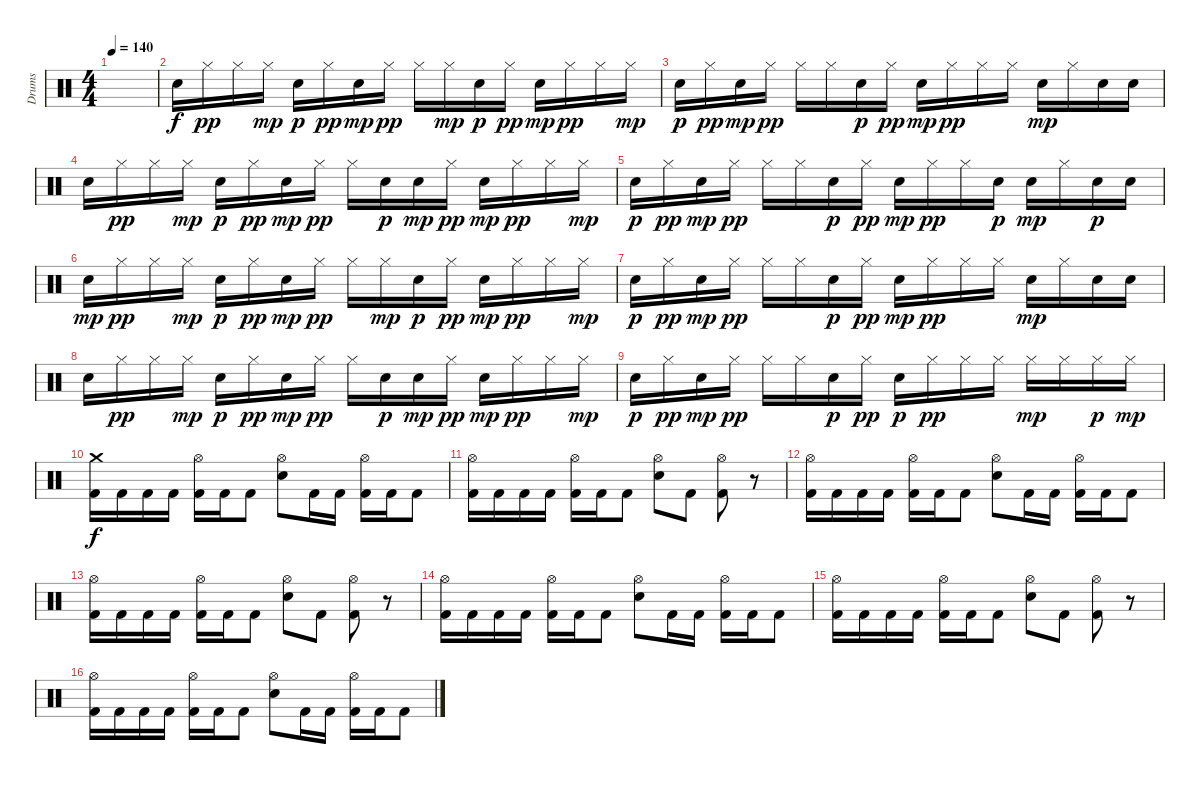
\track ("Drums" "Drums") {instrument percussion}
\staff {score}
\articulation defaults
\ts (4 4)
\tempo 140
\clef neutral
\ks aminor
|
"Snare (hit) 2".16 "Hi-Hat (closed)".16{dy pp} "Hi-Hat (closed)".16 "Hi-Hat (closed)".16{dy mp} "Snare (hit) 2".16{dy p} "Hi-Hat (closed)".16{dy pp} "Snare (hit) 2".16{dy mp} "Hi-Hat (closed)".16{dy pp} "Hi-Hat (closed)".16 "Hi-Hat (closed)".16{dy mp} "Snare (hit) 2".16{dy p} "Hi-Hat (closed)".16{dy pp} "Snare (hit) 2".16{dy mp} "Hi-Hat (closed)".16{dy pp} "Hi-Hat (closed)".16 "Hi-Hat (closed)".16{dy mp} |
"Snare (hit) 2".16{dy p} "Hi-Hat (closed)".16{dy pp} "Snare (hit) 2".16{dy mp} "Hi-Hat (closed)".16{dy pp} "Hi-Hat (closed)".16 "Hi-Hat (closed)".16 "Snare (hit) 2".16{dy p} "Hi-Hat (closed)".16{dy pp} "Snare (hit) 2".16{dy mp} "Hi-Hat (closed)".16{dy pp} "Hi-Hat (closed)".16 "Hi-Hat (closed)".16 "Snare (hit) 2".16{dy mp} "Hi-Hat (closed)".16 "Snare (hit) 2".16 "Snare (hit) 2".16 |
"Snare (hit) 2".16 "Hi-Hat (closed)".16{dy pp} "Hi-Hat (closed)".16 "Hi-Hat (closed)".16{dy mp} "Snare (hit) 2".16{dy p} "Hi-Hat (closed)".16{dy pp} "Snare (hit) 2".16{dy mp} "Hi-Hat (closed)".16{dy pp} "Hi-Hat (closed)".16 "Snare (hit) 2".16{dy p} "Snare (hit) 2".16{dy mp} "Hi-Hat (closed)".16{dy pp} "Snare (hit) 2".16{dy mp} "Hi-Hat (closed)".16{dy pp} "Hi-Hat (closed)".16 "Hi-Hat (closed)".16{dy mp} |
"Snare (hit) 2".16{dy p} "Hi-Hat (closed)".16{dy pp} "Snare (hit) 2".16{dy mp} "Hi-Hat (closed)".16{dy pp} "Hi-Hat (closed)".16 "Hi-Hat (closed)".16 "Snare (hit) 2".16{dy p} "Hi-Hat (closed)".16{dy pp} "Snare (hit) 2".16{dy mp} "Hi-Hat (closed)".16{dy pp} "Hi-Hat (closed)".16 "Snare (hit) 2".16{dy p} "Snare (hit) 2".16{dy mp} "Hi-Hat (closed)".16 "Snare (hit) 2".16{dy p} "Snare (hit) 2".16 |
"Snare (hit) 2".16{dy mp} "Hi-Hat (closed)".16{dy pp} "Hi-Hat (closed)".16 "Hi-Hat (closed)".16{dy mp} "Snare (hit) 2".16{dy p} "Hi-Hat (closed)".16{dy pp} "Snare (hit) 2".16{dy mp} "Hi-Hat (closed)".16{dy pp} "Hi-Hat (closed)".16 "Hi-Hat (closed)".16{dy mp} "Snare (hit) 2".16{dy p} "Hi-Hat (closed)".16{dy pp} "Snare (hit) 2".16{dy mp} "Hi-Hat (closed)".16{dy pp} "Hi-Hat (closed)".16 "Hi-Hat (closed)".16{dy mp} |
"Snare (hit) 2".16{dy p} "Hi-Hat (closed)".16{dy pp} "Snare (hit) 2".16{dy mp} "Hi-Hat (closed)".16{dy pp} "Hi-Hat (closed)".16 "Hi-Hat (closed)".16 "Snare (hit) 2".16{dy p} "Hi-Hat (closed)".16{dy pp} "Snare (hit) 2".16{dy mp} "Hi-Hat (closed)".16{dy pp} "Hi-Hat (closed)".16 "Hi-Hat (closed)".16 "Snare (hit) 2".16{dy mp} "Hi-Hat (closed)".16 "Snare (hit) 2".16 "Snare (hit) 2".16 |
"Snare (hit) 2".16 "Hi-Hat (closed)".16{dy pp} "Hi-Hat (closed)".16 "Hi-Hat (closed)".16{dy mp} "Snare (hit) 2".16{dy p} "Hi-Hat (closed)".16{dy pp} "Snare (hit) 2".16{dy mp} "Hi-Hat (closed)".16{dy pp} "Hi-Hat (closed)".16 "Snare (hit) 2".16{dy p} "Snare (hit) 2".16{dy mp} "Hi-Hat (closed)".16{dy pp} "Snare (hit) 2".16{dy mp} "Hi-Hat (closed)".16{dy pp} "Hi-Hat (closed)".16 "Hi-Hat (closed)".16{dy mp} |
"Snare (hit) 2".16{dy p} "Hi-Hat (closed)".16{dy pp} "Snare (hit) 2".16{dy mp} "Hi-Hat (closed)".16{dy pp} "Hi-Hat (closed)".16 "Hi-Hat (closed)".16 "Snare (hit) 2".16{dy p} "Hi-Hat (closed)".16{dy pp} "Snare (hit) 2".16{dy p} "Hi-Hat (closed)".16{dy pp} "Hi-Hat (closed)".16 "Hi-Hat (closed)".16 "Hi-Hat (closed)".16{dy mp} "Hi-Hat (closed)".16 "Hi-Hat (closed)".16{dy p} "Hi-Hat (closed)".16{dy mp} |
("Crash medium (hit)" "Kick (hit) 2").16{dy f} "Kick (hit) 2".16 "Kick (hit) 2".16 "Kick (hit) 2".16 ("Hi-Hat (open)" "Kick (hit) 2").16 "Kick (hit) 2".16 "Kick (hit) 2".8 ("Hi-Hat (open)" "Snare (hit) 2").8 "Kick (hit) 2".16 "Kick (hit) 2".16 ("Hi-Hat (open)" "Kick (hit) 2").16 "Kick (hit) 2".16 "Kick (hit) 2".8 |
("Hi-Hat (open)" "Kick (hit) 2").16 "Kick (hit) 2".16 "Kick (hit) 2".16 "Kick (hit) 2".16 ("Hi-Hat (open)" "Kick (hit) 2").16 "Kick (hit) 2".16 "Kick (hit) 2".8 ("Hi-Hat (open)" "Snare (hit) 2").8 "Kick (hit) 2".8 ("Hi-Hat (open)" "Kick (hit) 2").8 r.8 |
("Hi-Hat (open)" "Kick (hit) 2").16 "Kick (hit) 2".16 "Kick (hit) 2".16 "Kick (hit) 2".16 ("Hi-Hat (open)" "Kick (hit) 2").16 "Kick (hit) 2".16 "Kick (hit) 2".8 ("Hi-Hat (open)" "Snare (hit) 2").8 "Kick (hit) 2".16 "Kick (hit) 2".16 ("Hi-Hat (open)" "Kick (hit) 2").16 "Kick (hit) 2".16 "Kick (hit) 2".8 |
("Hi-Hat (open)" "Kick (hit) 2").16 "Kick (hit) 2".16 "Kick (hit) 2".16 "Kick (hit) 2".16 ("Hi-Hat (open)" "Kick (hit) 2").16 "Kick (hit) 2".16 "Kick (hit) 2".8 ("Hi-Hat (open)" "Snare (hit) 2").8 "Kick (hit) 2".8 ("Hi-Hat (open)" "Kick (hit) 2").8 r.8 |
("Hi-Hat (open)" "Kick (hit) 2").16 "Kick (hit) 2".16 "Kick (hit) 2".16 "Kick (hit) 2".16 ("Hi-Hat (open)" "Kick (hit) 2").16 "Kick (hit) 2".16 "Kick (hit) 2".8 ("Hi-Hat (open)" "Snare (hit) 2").8 "Kick (hit) 2".16 "Kick (hit) 2".16 ("Hi-Hat (open)" "Kick (hit) 2").16 "Kick (hit) 2".16 "Kick (hit) 2".8 |
("Hi-Hat (open)" "Kick (hit) 2").16 "Kick (hit) 2".16 "Kick (hit) 2".16 "Kick (hit) 2".16 ("Hi-Hat (open)" "Kick (hit) 2").16 "Kick (hit) 2".16 "Kick (hit) 2".8 ("Hi-Hat (open)" "Snare (hit) 2").8 "Kick (hit) 2".8 ("Hi-Hat (open)" "Kick (hit) 2").8 r.8 |
("Hi-Hat (open)" "Kick (hit) 2").16 "Kick (hit) 2".16 "Kick (hit) 2".16 "Kick (hit) 2".16 ("Hi-Hat (open)" "Kick (hit) 2").16 "Kick (hit) 2".16 "Kick (hit) 2".8 ("Hi-Hat (open)" "Snare (hit) 2").8 "Kick (hit) 2".16 "Kick (hit) 2".16 ("Hi-Hat (open)" "Kick (hit) 2").16 "Kick (hit) 2".16 "Kick (hit) 2".8
